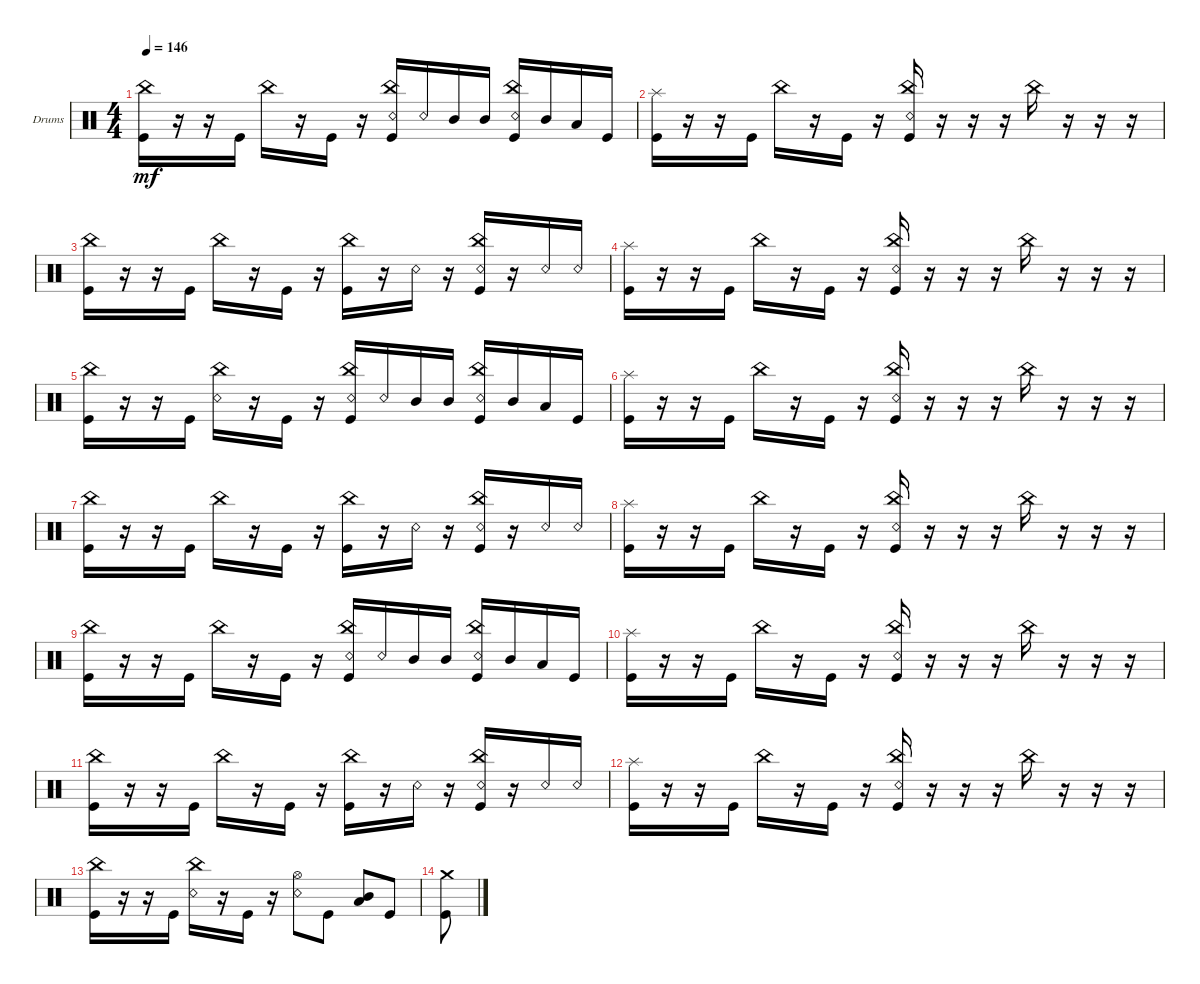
\defaultSystemsLayout 4
\bracketExtendMode groupsimilarinstruments
\firstSystemTrackNameOrientation horizontal
\otherSystemsTrackNameOrientation horizontal
\track ("Drums" "Drums") {instrument percussion}
\staff {score}
\articulation defaults
\ts (4 4)
\tempo 146
\clef neutral
\ks c
("Kick (hit)" "China (hit)").16{dy mf} r.16 r.16 "Kick (hit)".16 "China (hit)".16 r.16 "Kick (hit)".16 r.16 ("Kick (hit)" "China (hit)" "Snare (rim shot)").16 "Snare (rim shot)".16 "Mid Tom (hit)".16 "Mid Tom (hit)".16 ("China (hit)" "Kick (hit)" "Snare (rim shot)").16 "Mid Tom (hit)".16 "Low Tom (hit)".16 "Kick (hit)".16 |
("Splash (hit)" "Kick (hit)").16 r.16 r.16 "Kick (hit)".16 "China (hit)".16 r.16 "Kick (hit)".16 r.16 ("Kick (hit)" "China (hit)" "Snare (rim shot)").16 r.16 r.16 r.16 "China (hit)".16 r.16 r.16 r.16 |
("Kick (hit)" "China (hit)").16 r.16 r.16 "Kick (hit)".16 "China (hit)".16 r.16 "Kick (hit)".16 r.16 ("Kick (hit)" "China (hit)").16 r.16 "Snare (rim shot)".16 r.16 ("China (hit)" "Kick (hit)" "Snare (rim shot)").16 r.16 "Snare (rim shot)".16 "Snare (rim shot)".16 |
("Splash (hit)" "Kick (hit)").16 r.16 r.16 "Kick (hit)".16 "China (hit)".16 r.16 "Kick (hit)".16 r.16 ("Kick (hit)" "China (hit)" "Snare (rim shot)").16 r.16 r.16 r.16 "China (hit)".16 r.16 r.16 r.16 |
("Kick (hit)" "China (hit)").16 r.16 r.16 "Kick (hit)".16 ("China (hit)" "Snare (rim shot)").16 r.16 "Kick (hit)".16 r.16 ("Kick (hit)" "China (hit)" "Snare (rim shot)").16 "Snare (rim shot)".16 "Mid Tom (hit)".16 "Mid Tom (hit)".16 ("China (hit)" "Kick (hit)" "Snare (rim shot)").16 "Mid Tom (hit)".16 "Low Tom (hit)".16 "Kick (hit)".16 |
("Splash (hit)" "Kick (hit)").16 r.16 r.16 "Kick (hit)".16 "China (hit)".16 r.16 "Kick (hit)".16 r.16 ("Kick (hit)" "China (hit)" "Snare (rim shot)").16 r.16 r.16 r.16 "China (hit)".16 r.16 r.16 r.16 |
("Kick (hit)" "China (hit)").16 r.16 r.16 "Kick (hit)".16 "China (hit)".16 r.16 "Kick (hit)".16 r.16 ("Kick (hit)" "China (hit)").16 r.16 "Snare (rim shot)".16 r.16 ("China (hit)" "Kick (hit)" "Snare (rim shot)").16 r.16 "Snare (rim shot)".16 "Snare (rim shot)".16 |
("Splash (hit)" "Kick (hit)").16 r.16 r.16 "Kick (hit)".16 "China (hit)".16 r.16 "Kick (hit)".16 r.16 ("Kick (hit)" "China (hit)" "Snare (rim shot)").16 r.16 r.16 r.16 "China (hit)".16 r.16 r.16 r.16 |
("Kick (hit)" "China (hit)").16 r.16 r.16 "Kick (hit)".16 "China (hit)".16 r.16 "Kick (hit)".16 r.16 ("Kick (hit)" "China (hit)" "Snare (rim shot)").16 "Snare (rim shot)".16 "Mid Tom (hit)".16 "Mid Tom (hit)".16 ("China (hit)" "Kick (hit)" "Snare (rim shot)").16 "Mid Tom (hit)".16 "Low Tom (hit)".16 "Kick (hit)".16 |
("Splash (hit)" "Kick (hit)").16 r.16 r.16 "Kick (hit)".16 "China (hit)".16 r.16 "Kick (hit)".16 r.16 ("Kick (hit)" "China (hit)" "Snare (rim shot)").16 r.16 r.16 r.16 "China (hit)".16 r.16 r.16 r.16 |
("Kick (hit)" "China (hit)").16 r.16 r.16 "Kick (hit)".16 "China (hit)".16 r.16 "Kick (hit)".16 r.16 ("Kick (hit)" "China (hit)").16 r.16 "Snare (rim shot)".16 r.16 ("China (hit)" "Kick (hit)" "Snare (rim shot)").16 r.16 "Snare (rim shot)".16 "Snare (rim shot)".16 |
("Splash (hit)" "Kick (hit)").16 r.16 r.16 "Kick (hit)".16 "China (hit)".16 r.16 "Kick (hit)".16 r.16 ("Kick (hit)" "China (hit)" "Snare (rim shot)").16 r.16 r.16 r.16 "China (hit)".16 r.16 r.16 r.16 |
("Kick (hit)" "China (hit)").16 r.16 r.16 "Kick (hit)".16 ("China (hit)" "Snare (rim shot)").16 r.16 "Kick (hit)".16 r.16 ("Snare (rim shot)" "Hi-Hat (open)").8 "Kick (hit)".8 ("Mid Tom (hit)" "Low Tom (hit)").8 "Kick (hit)".8 |
("Kick (hit)" "Crash medium (hit)").8
